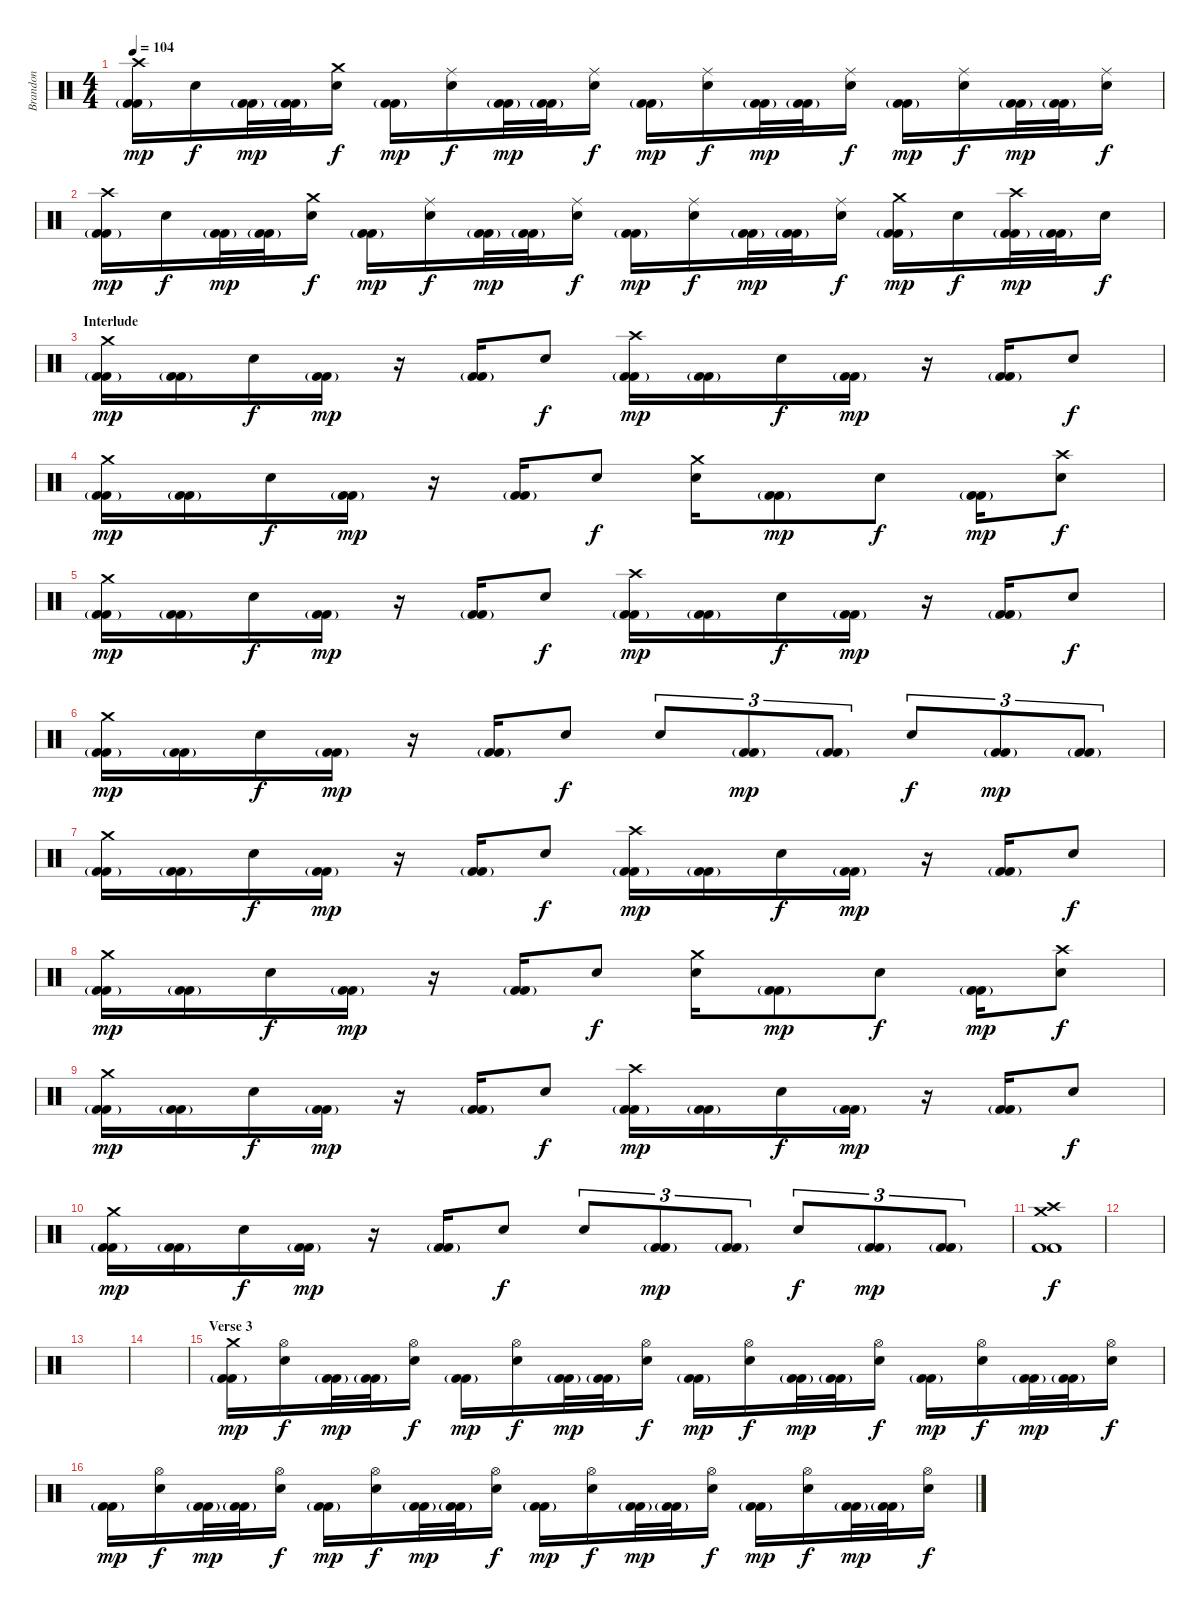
\track ("Brandon" "Brandon") {instrument percussion}
\staff {score}
\articulation defaults
\ts (4 4)
\tempo 104
\clef neutral
\ks c
("Crash high (hit)" "Kick (hit) 2"{g} "Kick (hit) 2").16{dy mp} "Electric Snare (hit)".16{dy f} ("Kick (hit) 2"{g} "Kick (hit) 2").32{dy mp} ("Kick (hit) 2"{g} "Kick (hit) 2").32 ("Crash medium (hit)" "Electric Snare (hit)").16{dy f} ("Kick (hit) 2"{g} "Kick (hit) 2").16{dy mp} ("Ride (middle)" "Electric Snare (hit)").16{dy f} ("Kick (hit) 2"{g} "Kick (hit) 2").32{dy mp} ("Kick (hit) 2"{g} "Kick (hit) 2").32 ("Ride (middle)" "Electric Snare (hit)").16{dy f} ("Kick (hit) 2"{g} "Kick (hit) 2").16{dy mp} ("Ride (middle)" "Electric Snare (hit)").16{dy f} ("Kick (hit) 2"{g} "Kick (hit) 2").32{dy mp} ("Kick (hit) 2"{g} "Kick (hit) 2").32 ("Ride (middle)" "Electric Snare (hit)").16{dy f} ("Kick (hit) 2"{g} "Kick (hit) 2").16{dy mp} ("Ride (middle)" "Electric Snare (hit)").16{dy f} ("Kick (hit) 2"{g} "Kick (hit) 2").32{dy mp} ("Kick (hit) 2"{g} "Kick (hit) 2").32 ("Ride (middle)" "Electric Snare (hit)").16{dy f} |
("Crash high (hit)" "Kick (hit) 2"{g} "Kick (hit) 2").16{dy mp} "Electric Snare (hit)".16{dy f} ("Kick (hit) 2"{g} "Kick (hit) 2").32{dy mp} ("Kick (hit) 2"{g} "Kick (hit) 2").32 ("Crash medium (hit)" "Electric Snare (hit)").16{dy f} ("Kick (hit) 2"{g} "Kick (hit) 2").16{dy mp} ("Ride (middle)" "Electric Snare (hit)").16{dy f} ("Kick (hit) 2"{g} "Kick (hit) 2").32{dy mp} ("Kick (hit) 2"{g} "Kick (hit) 2").32 ("Ride (middle)" "Electric Snare (hit)").16{dy f} ("Kick (hit) 2"{g} "Kick (hit) 2").16{dy mp} ("Ride (middle)" "Electric Snare (hit)").16{dy f} ("Kick (hit) 2"{g} "Kick (hit) 2").32{dy mp} ("Kick (hit) 2"{g} "Kick (hit) 2").32 ("Ride (middle)" "Electric Snare (hit)").16{dy f} ("Crash medium (hit)" "Kick (hit) 2"{g} "Kick (hit) 2").16{dy mp} "Electric Snare (hit)".16{dy f} ("Crash high (hit)" "Kick (hit) 2"{g} "Kick (hit) 2").32{dy mp} ("Kick (hit) 2"{g} "Kick (hit) 2").32 "Electric Snare (hit)".16{dy f} |
\section ("" "Interlude")
("Crash medium (hit)" "Kick (hit) 2"{g} "Kick (hit) 2").16{dy mp} ("Kick (hit) 2"{g} "Kick (hit) 2").16 "Electric Snare (hit)".16{dy f} ("Kick (hit) 2"{g} "Kick (hit) 2").16{dy mp} r.16 ("Kick (hit) 2"{g} "Kick (hit) 2").16 "Electric Snare (hit)".8{dy f} ("Crash high (hit)" "Kick (hit) 2"{g} "Kick (hit) 2").16{dy mp} ("Kick (hit) 2"{g} "Kick (hit) 2").16 "Electric Snare (hit)".16{dy f} ("Kick (hit) 2"{g} "Kick (hit) 2").16{dy mp} r.16 ("Kick (hit) 2"{g} "Kick (hit) 2").16 "Electric Snare (hit)".8{dy f} |
("Crash medium (hit)" "Kick (hit) 2"{g} "Kick (hit) 2").16{dy mp} ("Kick (hit) 2"{g} "Kick (hit) 2").16 "Electric Snare (hit)".16{dy f} ("Kick (hit) 2"{g} "Kick (hit) 2").16{dy mp} r.16 ("Kick (hit) 2"{g} "Kick (hit) 2").16 "Electric Snare (hit)".8{dy f} ("Crash medium (hit)" "Electric Snare (hit)").16 ("Kick (hit) 2"{g} "Kick (hit) 2").8{dy mp} "Electric Snare (hit)".8{dy f} ("Kick (hit) 2"{g} "Kick (hit) 2").16{dy mp} ("Crash high (hit)" "Electric Snare (hit)").8{dy f} |
("Crash medium (hit)" "Kick (hit) 2"{g} "Kick (hit) 2").16{dy mp} ("Kick (hit) 2"{g} "Kick (hit) 2").16 "Electric Snare (hit)".16{dy f} ("Kick (hit) 2"{g} "Kick (hit) 2").16{dy mp} r.16 ("Kick (hit) 2"{g} "Kick (hit) 2").16 "Electric Snare (hit)".8{dy f} ("Crash high (hit)" "Kick (hit) 2"{g} "Kick (hit) 2").16{dy mp} ("Kick (hit) 2"{g} "Kick (hit) 2").16 "Electric Snare (hit)".16{dy f} ("Kick (hit) 2"{g} "Kick (hit) 2").16{dy mp} r.16 ("Kick (hit) 2"{g} "Kick (hit) 2").16 "Electric Snare (hit)".8{dy f} |
("Crash medium (hit)" "Kick (hit) 2"{g} "Kick (hit) 2").16{dy mp} ("Kick (hit) 2"{g} "Kick (hit) 2").16 "Electric Snare (hit)".16{dy f} ("Kick (hit) 2"{g} "Kick (hit) 2").16{dy mp} r.16 ("Kick (hit) 2"{g} "Kick (hit) 2").16 "Electric Snare (hit)".8{dy f} "Electric Snare (hit)".8{tu (3 2)} ("Kick (hit) 2"{g} "Kick (hit) 2").8{tu (3 2) dy mp} ("Kick (hit) 2"{g} "Kick (hit) 2").8{tu (3 2)} "Electric Snare (hit)".8{tu (3 2) dy f} ("Kick (hit) 2"{g} "Kick (hit) 2").8{tu (3 2) dy mp} ("Kick (hit) 2"{g} "Kick (hit) 2").8{tu (3 2)} |
("Crash medium (hit)" "Kick (hit) 2"{g} "Kick (hit) 2").16 ("Kick (hit) 2"{g} "Kick (hit) 2").16 "Electric Snare (hit)".16{dy f} ("Kick (hit) 2"{g} "Kick (hit) 2").16{dy mp} r.16 ("Kick (hit) 2"{g} "Kick (hit) 2").16 "Electric Snare (hit)".8{dy f} ("Crash high (hit)" "Kick (hit) 2"{g} "Kick (hit) 2").16{dy mp} ("Kick (hit) 2"{g} "Kick (hit) 2").16 "Electric Snare (hit)".16{dy f} ("Kick (hit) 2"{g} "Kick (hit) 2").16{dy mp} r.16 ("Kick (hit) 2"{g} "Kick (hit) 2").16 "Electric Snare (hit)".8{dy f} |
("Crash medium (hit)" "Kick (hit) 2"{g} "Kick (hit) 2").16{dy mp} ("Kick (hit) 2"{g} "Kick (hit) 2").16 "Electric Snare (hit)".16{dy f} ("Kick (hit) 2"{g} "Kick (hit) 2").16{dy mp} r.16 ("Kick (hit) 2"{g} "Kick (hit) 2").16 "Electric Snare (hit)".8{dy f} ("Crash medium (hit)" "Electric Snare (hit)").16 ("Kick (hit) 2"{g} "Kick (hit) 2").8{dy mp} "Electric Snare (hit)".8{dy f} ("Kick (hit) 2"{g} "Kick (hit) 2").16{dy mp} ("Crash high (hit)" "Electric Snare (hit)").8{dy f} |
("Crash medium (hit)" "Kick (hit) 2"{g} "Kick (hit) 2").16{dy mp} ("Kick (hit) 2"{g} "Kick (hit) 2").16 "Electric Snare (hit)".16{dy f} ("Kick (hit) 2"{g} "Kick (hit) 2").16{dy mp} r.16 ("Kick (hit) 2"{g} "Kick (hit) 2").16 "Electric Snare (hit)".8{dy f} ("Crash high (hit)" "Kick (hit) 2"{g} "Kick (hit) 2").16{dy mp} ("Kick (hit) 2"{g} "Kick (hit) 2").16 "Electric Snare (hit)".16{dy f} ("Kick (hit) 2"{g} "Kick (hit) 2").16{dy mp} r.16 ("Kick (hit) 2"{g} "Kick (hit) 2").16 "Electric Snare (hit)".8{dy f} |
("Crash medium (hit)" "Kick (hit) 2"{g} "Kick (hit) 2").16{dy mp} ("Kick (hit) 2"{g} "Kick (hit) 2").16 "Electric Snare (hit)".16{dy f} ("Kick (hit) 2"{g} "Kick (hit) 2").16{dy mp} r.16 ("Kick (hit) 2"{g} "Kick (hit) 2").16 "Electric Snare (hit)".8{dy f} "Electric Snare (hit)".8{tu (3 2)} ("Kick (hit) 2"{g} "Kick (hit) 2").8{tu (3 2) dy mp} ("Kick (hit) 2"{g} "Kick (hit) 2").8{tu (3 2)} "Electric Snare (hit)".8{tu (3 2) dy f} ("Kick (hit) 2"{g} "Kick (hit) 2").8{tu (3 2) dy mp} ("Kick (hit) 2"{g} "Kick (hit) 2").8{tu (3 2)} |
("Crash high (hit)" "Crash medium (hit)" "Kick (hit) 2" "Kick (hit) 2").1{dy f} |
|
|
|
\section ("" "Verse 3")
("Crash medium (hit)" "Kick (hit) 2"{g} "Kick (hit) 2").16{dy mp} ("Hi-Hat (open)" "Electric Snare (hit)").16{dy f} ("Kick (hit) 2"{g} "Kick (hit) 2").32{dy mp} ("Kick (hit) 2"{g} "Kick (hit) 2").32 ("Hi-Hat (open)" "Electric Snare (hit)").16{dy f} ("Kick (hit) 2"{g} "Kick (hit) 2").16{dy mp} ("Hi-Hat (open)" "Electric Snare (hit)").16{dy f} ("Kick (hit) 2"{g} "Kick (hit) 2").32{dy mp} ("Kick (hit) 2"{g} "Kick (hit) 2").32 ("Hi-Hat (open)" "Electric Snare (hit)").16{dy f} ("Kick (hit) 2"{g} "Kick (hit) 2").16{dy mp} ("Hi-Hat (open)" "Electric Snare (hit)").16{dy f} ("Kick (hit) 2"{g} "Kick (hit) 2").32{dy mp} ("Kick (hit) 2"{g} "Kick (hit) 2").32 ("Hi-Hat (open)" "Electric Snare (hit)").16{dy f} ("Kick (hit) 2"{g} "Kick (hit) 2").16{dy mp} ("Hi-Hat (open)" "Electric Snare (hit)").16{dy f} ("Kick (hit) 2"{g} "Kick (hit) 2").32{dy mp} ("Kick (hit) 2"{g} "Kick (hit) 2").32 ("Hi-Hat (open)" "Electric Snare (hit)").16{dy f} |
("Kick (hit) 2"{g} "Kick (hit) 2").16{dy mp} ("Hi-Hat (open)" "Electric Snare (hit)").16{dy f} ("Kick (hit) 2"{g} "Kick (hit) 2").32{dy mp} ("Kick (hit) 2"{g} "Kick (hit) 2").32 ("Hi-Hat (open)" "Electric Snare (hit)").16{dy f} ("Kick (hit) 2"{g} "Kick (hit) 2").16{dy mp} ("Hi-Hat (open)" "Electric Snare (hit)").16{dy f} ("Kick (hit) 2"{g} "Kick (hit) 2").32{dy mp} ("Kick (hit) 2"{g} "Kick (hit) 2").32 ("Hi-Hat (open)" "Electric Snare (hit)").16{dy f} ("Kick (hit) 2"{g} "Kick (hit) 2").16{dy mp} ("Hi-Hat (open)" "Electric Snare (hit)").16{dy f} ("Kick (hit) 2"{g} "Kick (hit) 2").32{dy mp} ("Kick (hit) 2"{g} "Kick (hit) 2").32 ("Hi-Hat (open)" "Electric Snare (hit)").16{dy f} ("Kick (hit) 2"{g} "Kick (hit) 2").16{dy mp} ("Hi-Hat (open)" "Electric Snare (hit)").16{dy f} ("Kick (hit) 2"{g} "Kick (hit) 2").32{dy mp} ("Kick (hit) 2"{g} "Kick (hit) 2").32 ("Hi-Hat (open)" "Electric Snare (hit)").16{dy f}
